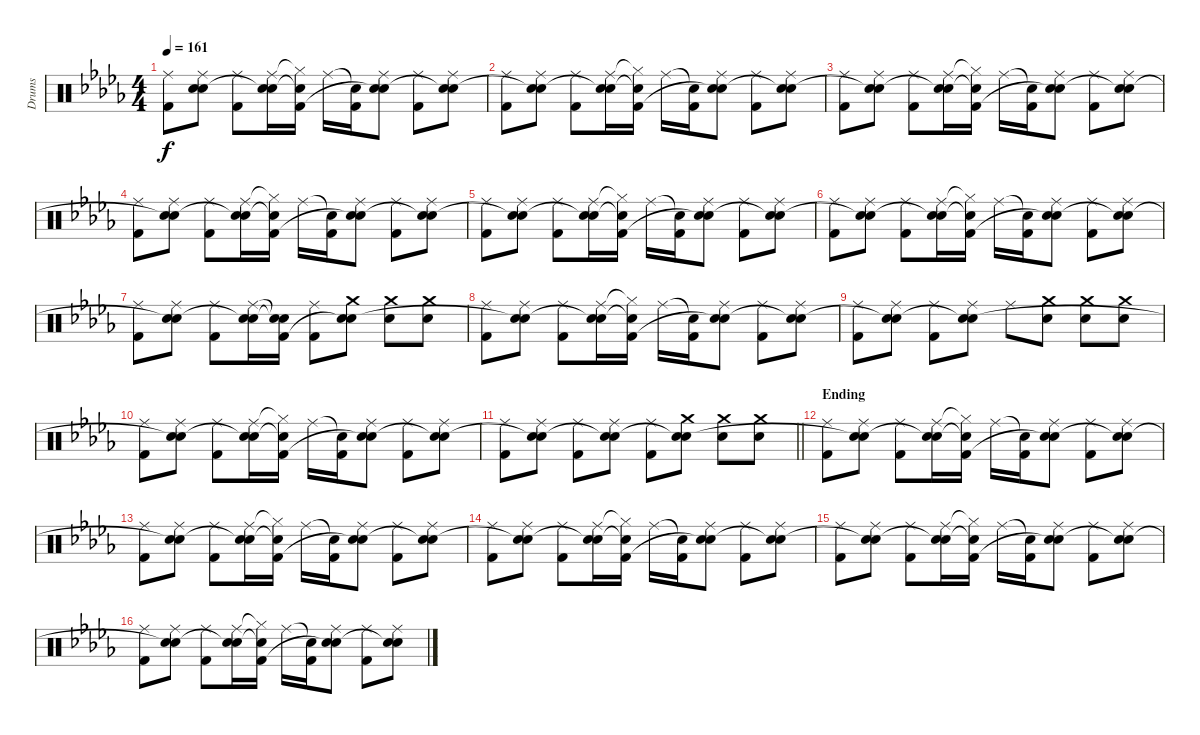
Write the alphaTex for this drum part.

\track ("Drums" "Drums") {instrument percussion}
\staff {score}
\articulation defaults
\ts (4 4)
\tempo 161
\clef neutral
\ks bbminor
("Ride (middle)" "Kick (hit) 2").8{dy f} ("Ride (middle)" "Electric Snare (hit)" "Snare (hit)"{t}).8 ("Ride (middle)" "Kick (hit) 2").8 ("Ride (middle)" "Electric Snare (hit)" "Snare (hit)"{t}).16 ("Hi-Hat (closed)"{t} "Snare (hit)"{t} "Kick (hit) 2").16 "Ride (middle)".16 ("Snare (hit)"{t} "Kick (hit) 2").16 ("Ride (middle)" "Electric Snare (hit)" "Snare (hit)"{t}).8 ("Ride (middle)" "Kick (hit) 2").8 ("Ride (middle)" "Electric Snare (hit)" "Snare (hit)"{t}).8 |
("Ride (middle)" "Kick (hit) 2").8 ("Ride (middle)" "Electric Snare (hit)" "Snare (hit)"{t}).8 ("Ride (middle)" "Kick (hit) 2").8 ("Ride (middle)" "Electric Snare (hit)" "Snare (hit)"{t}).16 ("Hi-Hat (closed)"{t} "Snare (hit)"{t} "Kick (hit) 2").16 "Ride (middle)".16 ("Snare (hit)"{t} "Kick (hit) 2").16 ("Ride (middle)" "Electric Snare (hit)" "Snare (hit)"{t}).8 ("Ride (middle)" "Kick (hit) 2").8 ("Ride (middle)" "Electric Snare (hit)" "Snare (hit)"{t}).8 |
("Ride (middle)" "Kick (hit) 2").8 ("Ride (middle)" "Electric Snare (hit)" "Snare (hit)"{t}).8 ("Ride (middle)" "Kick (hit) 2").8 ("Ride (middle)" "Electric Snare (hit)" "Snare (hit)"{t}).16 ("Hi-Hat (closed)"{t} "Snare (hit)"{t} "Kick (hit) 2").16 "Ride (middle)".16 ("Snare (hit)"{t} "Kick (hit) 2").16 ("Ride (middle)" "Electric Snare (hit)" "Snare (hit)"{t}).8 ("Ride (middle)" "Kick (hit) 2").8 ("Ride (middle)" "Electric Snare (hit)" "Snare (hit)"{t}).8 |
("Ride (middle)" "Kick (hit) 2").8 ("Ride (middle)" "Electric Snare (hit)" "Snare (hit)"{t}).8 ("Ride (middle)" "Kick (hit) 2").8 ("Ride (middle)" "Electric Snare (hit)" "Snare (hit)"{t}).16 ("Hi-Hat (closed)"{t} "Snare (hit)"{t} "Kick (hit) 2").16 "Ride (middle)".16 ("Snare (hit)"{t} "Kick (hit) 2").16 ("Ride (middle)" "Electric Snare (hit)" "Snare (hit)"{t}).8 ("Ride (middle)" "Kick (hit) 2").8 ("Ride (middle)" "Electric Snare (hit)" "Snare (hit)"{t}).8 |
("Ride (middle)" "Kick (hit) 2").8 ("Ride (middle)" "Electric Snare (hit)" "Snare (hit)"{t}).8 ("Ride (middle)" "Kick (hit) 2").8 ("Ride (middle)" "Electric Snare (hit)" "Snare (hit)"{t}).16 ("Hi-Hat (closed)"{t} "Snare (hit)"{t} "Kick (hit) 2").16 "Ride (middle)".16 ("Snare (hit)"{t} "Kick (hit) 2").16 ("Ride (middle)" "Electric Snare (hit)" "Snare (hit)"{t}).8 ("Ride (middle)" "Kick (hit) 2").8 ("Ride (middle)" "Electric Snare (hit)" "Snare (hit)"{t}).8 |
("Ride (middle)" "Kick (hit) 2").8 ("Ride (middle)" "Electric Snare (hit)" "Snare (hit)"{t}).8 ("Ride (middle)" "Kick (hit) 2").8 ("Ride (middle)" "Electric Snare (hit)" "Snare (hit)"{t}).16 ("Hi-Hat (closed)"{t} "Snare (hit)"{t} "Kick (hit) 2").16 "Ride (middle)".16 ("Snare (hit)"{t} "Kick (hit) 2").16 ("Ride (middle)" "Electric Snare (hit)" "Snare (hit)"{t}).8 ("Ride (middle)" "Kick (hit) 2").8 ("Ride (middle)" "Electric Snare (hit)" "Snare (hit)"{t}).8 |
("Ride (middle)" "Kick (hit) 2").8 ("Ride (middle)" "Electric Snare (hit)" "Snare (hit)"{t}).8 ("Ride (middle)" "Kick (hit) 2").8 ("Ride (middle)" "Electric Snare (hit)" "Snare (hit)"{t}).16 ("Snare (hit)"{t} "Snare (hit)"{t} "Kick (hit) 2").16 ("Ride (middle)" "Kick (hit) 2").8 ("Crash medium (hit)" "Electric Snare (hit)" "Snare (hit)"{t}).8 ("Crash medium (hit)" "Electric Snare (hit)").8 ("Crash medium (hit)" "Electric Snare (hit)").8 |
("Ride (middle)" "Kick (hit) 2").8 ("Ride (middle)" "Electric Snare (hit)" "Snare (hit)"{t}).8 ("Ride (middle)" "Kick (hit) 2").8 ("Ride (middle)" "Electric Snare (hit)" "Snare (hit)"{t}).16 ("Hi-Hat (closed)"{t} "Snare (hit)"{t} "Kick (hit) 2").16 "Ride (middle)".16 ("Snare (hit)"{t} "Kick (hit) 2").16 ("Ride (middle)" "Electric Snare (hit)" "Snare (hit)"{t}).8 ("Ride (middle)" "Kick (hit) 2").8 ("Ride (middle)" "Electric Snare (hit)" "Snare (hit)"{t}).8 |
("Ride (middle)" "Kick (hit) 2").8 ("Ride (middle)" "Electric Snare (hit)" "Snare (hit)"{t}).8 ("Ride (middle)" "Kick (hit) 2").8 ("Ride (middle)" "Electric Snare (hit)" "Snare (hit)"{t}).8 "Ride (middle)".8 ("Crash medium (hit)" "Electric Snare (hit)").8 ("Crash medium (hit)" "Electric Snare (hit)").8 ("Crash medium (hit)" "Electric Snare (hit)").8 |
("Ride (middle)" "Kick (hit) 2").8 ("Ride (middle)" "Electric Snare (hit)" "Snare (hit)"{t}).8 ("Ride (middle)" "Kick (hit) 2").8 ("Ride (middle)" "Electric Snare (hit)" "Snare (hit)"{t}).16 ("Hi-Hat (closed)"{t} "Snare (hit)"{t} "Kick (hit) 2").16 "Ride (middle)".16 ("Snare (hit)"{t} "Kick (hit) 2").16 ("Ride (middle)" "Electric Snare (hit)" "Snare (hit)"{t}).8 ("Ride (middle)" "Kick (hit) 2").8 ("Ride (middle)" "Electric Snare (hit)" "Snare (hit)"{t}).8 |
\barLineRight lightlight
("Ride (middle)" "Kick (hit) 2").8 ("Ride (middle)" "Electric Snare (hit)" "Snare (hit)"{t}).8 ("Ride (middle)" "Kick (hit) 2").8 ("Ride (middle)" "Electric Snare (hit)" "Snare (hit)"{t}).8 ("Ride (middle)" "Kick (hit) 2").8 ("Crash medium (hit)" "Electric Snare (hit)" "Snare (hit)"{t}).8 ("Crash medium (hit)" "Electric Snare (hit)").8 ("Crash medium (hit)" "Electric Snare (hit)").8 |
\section ("" "Ending")
("Ride (middle)" "Kick (hit) 2").8 ("Ride (middle)" "Electric Snare (hit)" "Snare (hit)"{t}).8 ("Ride (middle)" "Kick (hit) 2").8 ("Ride (middle)" "Electric Snare (hit)" "Snare (hit)"{t}).16 ("Hi-Hat (closed)"{t} "Snare (hit)"{t} "Kick (hit) 2").16 "Ride (middle)".16 ("Snare (hit)"{t} "Kick (hit) 2").16 ("Ride (middle)" "Electric Snare (hit)" "Snare (hit)"{t}).8 ("Ride (middle)" "Kick (hit) 2").8 ("Ride (middle)" "Electric Snare (hit)" "Snare (hit)"{t}).8 |
("Ride (middle)" "Kick (hit) 2").8 ("Ride (middle)" "Electric Snare (hit)" "Snare (hit)"{t}).8 ("Ride (middle)" "Kick (hit) 2").8 ("Ride (middle)" "Electric Snare (hit)" "Snare (hit)"{t}).16 ("Hi-Hat (closed)"{t} "Snare (hit)"{t} "Kick (hit) 2").16 "Ride (middle)".16 ("Snare (hit)"{t} "Kick (hit) 2").16 ("Ride (middle)" "Electric Snare (hit)" "Snare (hit)"{t}).8 ("Ride (middle)" "Kick (hit) 2").8 ("Ride (middle)" "Electric Snare (hit)" "Snare (hit)"{t}).8 |
("Ride (middle)" "Kick (hit) 2").8 ("Ride (middle)" "Electric Snare (hit)" "Snare (hit)"{t}).8 ("Ride (middle)" "Kick (hit) 2").8 ("Ride (middle)" "Electric Snare (hit)" "Snare (hit)"{t}).16 ("Hi-Hat (closed)"{t} "Snare (hit)"{t} "Kick (hit) 2").16 "Ride (middle)".16 ("Snare (hit)"{t} "Kick (hit) 2").16 ("Ride (middle)" "Electric Snare (hit)" "Snare (hit)"{t}).8 ("Ride (middle)" "Kick (hit) 2").8 ("Ride (middle)" "Electric Snare (hit)" "Snare (hit)"{t}).8 |
("Ride (middle)" "Kick (hit) 2").8 ("Ride (middle)" "Electric Snare (hit)" "Snare (hit)"{t}).8 ("Ride (middle)" "Kick (hit) 2").8 ("Ride (middle)" "Electric Snare (hit)" "Snare (hit)"{t}).16 ("Hi-Hat (closed)"{t} "Snare (hit)"{t} "Kick (hit) 2").16 "Ride (middle)".16 ("Snare (hit)"{t} "Kick (hit) 2").16 ("Ride (middle)" "Electric Snare (hit)" "Snare (hit)"{t}).8 ("Ride (middle)" "Kick (hit) 2").8 ("Ride (middle)" "Electric Snare (hit)" "Snare (hit)"{t}).8 |
("Ride (middle)" "Kick (hit) 2").8 ("Ride (middle)" "Electric Snare (hit)" "Snare (hit)"{t}).8 ("Ride (middle)" "Kick (hit) 2").8 ("Ride (middle)" "Electric Snare (hit)" "Snare (hit)"{t}).16 ("Hi-Hat (closed)"{t} "Snare (hit)"{t} "Kick (hit) 2").16 "Ride (middle)".16 ("Snare (hit)"{t} "Kick (hit) 2").16 ("Ride (middle)" "Electric Snare (hit)" "Snare (hit)"{t}).8 ("Ride (middle)" "Kick (hit) 2").8 ("Ride (middle)" "Electric Snare (hit)" "Snare (hit)"{t}).8
